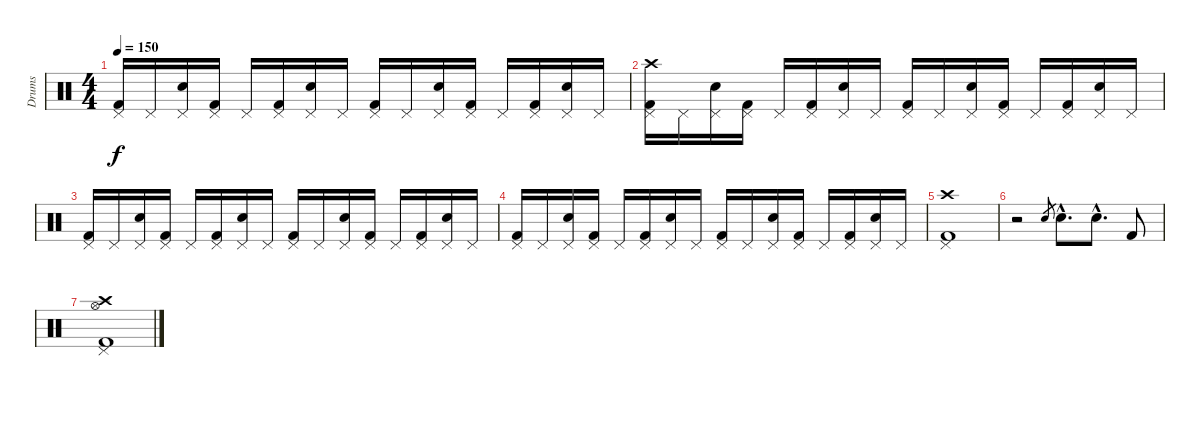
\track ("Drums" "Drums") {instrument percussion}
\staff {score}
\articulation defaults
\ts (4 4)
\tempo 150
\clef neutral
\ks c
("Kick (hit) 2" "Pedal Hi-Hat (hit)").16{dy f} "Pedal Hi-Hat (hit)".16 ("Snare (hit) 2" "Pedal Hi-Hat (hit)").16 ("Kick (hit) 2" "Pedal Hi-Hat (hit)").16 "Pedal Hi-Hat (hit)".16 ("Kick (hit) 2" "Pedal Hi-Hat (hit)").16 ("Snare (hit) 2" "Pedal Hi-Hat (hit)").16 "Pedal Hi-Hat (hit)".16 ("Kick (hit) 2" "Pedal Hi-Hat (hit)").16 "Pedal Hi-Hat (hit)".16 ("Snare (hit) 2" "Pedal Hi-Hat (hit)").16 ("Kick (hit) 2" "Pedal Hi-Hat (hit)").16 "Pedal Hi-Hat (hit)".16 ("Kick (hit) 2" "Pedal Hi-Hat (hit)").16 ("Snare (hit) 2" "Pedal Hi-Hat (hit)").16 "Pedal Hi-Hat (hit)".16 |
("Kick (hit) 2" "Pedal Hi-Hat (hit)" "Crash high (hit)").16 "Pedal Hi-Hat (hit)".16 ("Snare (hit) 2" "Pedal Hi-Hat (hit)").16 ("Kick (hit) 2" "Pedal Hi-Hat (hit)").16 "Pedal Hi-Hat (hit)".16 ("Kick (hit) 2" "Pedal Hi-Hat (hit)").16 ("Snare (hit) 2" "Pedal Hi-Hat (hit)").16 "Pedal Hi-Hat (hit)".16 ("Kick (hit) 2" "Pedal Hi-Hat (hit)").16 "Pedal Hi-Hat (hit)".16 ("Snare (hit) 2" "Pedal Hi-Hat (hit)").16 ("Kick (hit) 2" "Pedal Hi-Hat (hit)").16 "Pedal Hi-Hat (hit)".16 ("Kick (hit) 2" "Pedal Hi-Hat (hit)").16 ("Snare (hit) 2" "Pedal Hi-Hat (hit)").16 "Pedal Hi-Hat (hit)".16 |
("Kick (hit) 2" "Pedal Hi-Hat (hit)").16 "Pedal Hi-Hat (hit)".16 ("Snare (hit) 2" "Pedal Hi-Hat (hit)").16 ("Kick (hit) 2" "Pedal Hi-Hat (hit)").16 "Pedal Hi-Hat (hit)".16 ("Kick (hit) 2" "Pedal Hi-Hat (hit)").16 ("Snare (hit) 2" "Pedal Hi-Hat (hit)").16 "Pedal Hi-Hat (hit)".16 ("Kick (hit) 2" "Pedal Hi-Hat (hit)").16 "Pedal Hi-Hat (hit)".16 ("Snare (hit) 2" "Pedal Hi-Hat (hit)").16 ("Kick (hit) 2" "Pedal Hi-Hat (hit)").16 "Pedal Hi-Hat (hit)".16 ("Kick (hit) 2" "Pedal Hi-Hat (hit)").16 ("Snare (hit) 2" "Pedal Hi-Hat (hit)").16 "Pedal Hi-Hat (hit)".16 |
("Kick (hit) 2" "Pedal Hi-Hat (hit)").16 "Pedal Hi-Hat (hit)".16 ("Snare (hit) 2" "Pedal Hi-Hat (hit)").16 ("Kick (hit) 2" "Pedal Hi-Hat (hit)").16 "Pedal Hi-Hat (hit)".16 ("Kick (hit) 2" "Pedal Hi-Hat (hit)").16 ("Snare (hit) 2" "Pedal Hi-Hat (hit)").16 "Pedal Hi-Hat (hit)".16 ("Kick (hit) 2" "Pedal Hi-Hat (hit)").16 "Pedal Hi-Hat (hit)".16 ("Snare (hit) 2" "Pedal Hi-Hat (hit)").16 ("Kick (hit) 2" "Pedal Hi-Hat (hit)").16 "Pedal Hi-Hat (hit)".16 ("Kick (hit) 2" "Pedal Hi-Hat (hit)").16 ("Snare (hit) 2" "Pedal Hi-Hat (hit)").16 "Pedal Hi-Hat (hit)".16 |
("Kick (hit) 2" "Pedal Hi-Hat (hit)" "Crash high (hit)").1 |
r.2 "Snare (hit) 2".8{gr} "Snare (hit) 2"{hac}.8{d} "Snare (hit) 2"{hac}.8{d} "Kick (hit) 2".8 |
("Kick (hit) 2" "Pedal Hi-Hat (hit)" "Hi-Hat (open)" "Crash high (hit)").1
